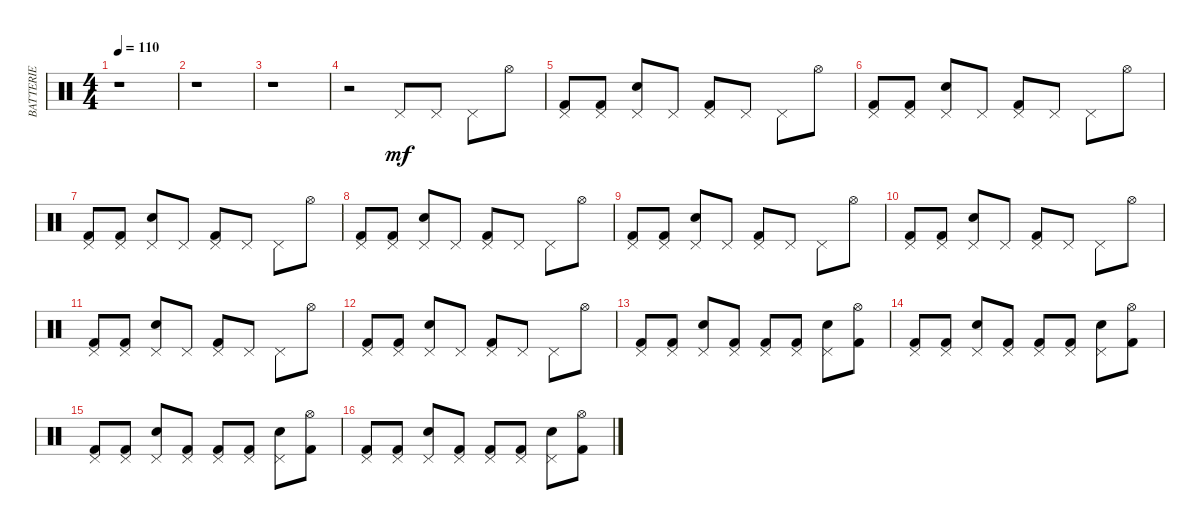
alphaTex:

\track ("BATTERIE" "BATTERIE") {instrument percussion}
\staff {score}
\articulation defaults
\ts (4 4)
\tempo 110
\clef neutral
\ks c
r.1{dy mf} |
r.1 |
r.1 |
r.2 "Pedal Hi-Hat (hit)".8 "Pedal Hi-Hat (hit)".8 "Pedal Hi-Hat (hit)".8 "Hi-Hat (open)".8 |
("Kick (hit) 2" "Pedal Hi-Hat (hit)").8 ("Kick (hit) 2" "Pedal Hi-Hat (hit)").8 ("Electric Snare (hit)" "Pedal Hi-Hat (hit)").8 "Pedal Hi-Hat (hit)".8 ("Kick (hit) 2" "Pedal Hi-Hat (hit)").8 "Pedal Hi-Hat (hit)".8 "Pedal Hi-Hat (hit)".8 "Hi-Hat (open)".8 |
("Kick (hit) 2" "Pedal Hi-Hat (hit)").8 ("Kick (hit) 2" "Pedal Hi-Hat (hit)").8 ("Electric Snare (hit)" "Pedal Hi-Hat (hit)").8 "Pedal Hi-Hat (hit)".8 ("Kick (hit) 2" "Pedal Hi-Hat (hit)").8 "Pedal Hi-Hat (hit)".8 "Pedal Hi-Hat (hit)".8 "Hi-Hat (open)".8 |
("Pedal Hi-Hat (hit)" "Kick (hit) 2").8 ("Pedal Hi-Hat (hit)" "Kick (hit) 2").8 ("Pedal Hi-Hat (hit)" "Electric Snare (hit)").8 "Pedal Hi-Hat (hit)".8 ("Pedal Hi-Hat (hit)" "Kick (hit) 2").8 "Pedal Hi-Hat (hit)".8 "Pedal Hi-Hat (hit)".8 "Hi-Hat (open)".8 |
("Kick (hit) 2" "Pedal Hi-Hat (hit)").8 ("Kick (hit) 2" "Pedal Hi-Hat (hit)").8 ("Electric Snare (hit)" "Pedal Hi-Hat (hit)").8 "Pedal Hi-Hat (hit)".8 ("Kick (hit) 2" "Pedal Hi-Hat (hit)").8 "Pedal Hi-Hat (hit)".8 "Pedal Hi-Hat (hit)".8 "Hi-Hat (open)".8 |
("Kick (hit) 2" "Pedal Hi-Hat (hit)").8 ("Kick (hit) 2" "Pedal Hi-Hat (hit)").8 ("Electric Snare (hit)" "Pedal Hi-Hat (hit)").8 "Pedal Hi-Hat (hit)".8 ("Kick (hit) 2" "Pedal Hi-Hat (hit)").8 "Pedal Hi-Hat (hit)".8 "Pedal Hi-Hat (hit)".8 "Hi-Hat (open)".8 |
("Pedal Hi-Hat (hit)" "Kick (hit) 2").8 ("Pedal Hi-Hat (hit)" "Kick (hit) 2").8 ("Pedal Hi-Hat (hit)" "Electric Snare (hit)").8 "Pedal Hi-Hat (hit)".8 ("Pedal Hi-Hat (hit)" "Kick (hit) 2").8 "Pedal Hi-Hat (hit)".8 "Pedal Hi-Hat (hit)".8 "Hi-Hat (open)".8 |
("Kick (hit) 2" "Pedal Hi-Hat (hit)").8 ("Kick (hit) 2" "Pedal Hi-Hat (hit)").8 ("Electric Snare (hit)" "Pedal Hi-Hat (hit)").8 "Pedal Hi-Hat (hit)".8 ("Kick (hit) 2" "Pedal Hi-Hat (hit)").8 "Pedal Hi-Hat (hit)".8 "Pedal Hi-Hat (hit)".8 "Hi-Hat (open)".8 |
("Kick (hit) 2" "Pedal Hi-Hat (hit)").8 ("Kick (hit) 2" "Pedal Hi-Hat (hit)").8 ("Electric Snare (hit)" "Pedal Hi-Hat (hit)").8 "Pedal Hi-Hat (hit)".8 ("Kick (hit) 2" "Pedal Hi-Hat (hit)").8 "Pedal Hi-Hat (hit)".8 "Pedal Hi-Hat (hit)".8 "Hi-Hat (open)".8 |
("Kick (hit) 2" "Pedal Hi-Hat (hit)").8 ("Kick (hit) 2" "Pedal Hi-Hat (hit)").8 ("Pedal Hi-Hat (hit)" "Electric Snare (hit)").8 ("Pedal Hi-Hat (hit)" "Kick (hit) 2").8 ("Kick (hit) 2" "Pedal Hi-Hat (hit)").8 ("Pedal Hi-Hat (hit)" "Kick (hit) 2").8 ("Pedal Hi-Hat (hit)" "Electric Snare (hit)").8 ("Hi-Hat (open)" "Kick (hit) 2").8 |
("Pedal Hi-Hat (hit)" "Kick (hit) 2").8 ("Pedal Hi-Hat (hit)" "Kick (hit) 2").8 ("Electric Snare (hit)" "Pedal Hi-Hat (hit)").8 ("Kick (hit) 2" "Pedal Hi-Hat (hit)").8 ("Pedal Hi-Hat (hit)" "Kick (hit) 2").8 ("Pedal Hi-Hat (hit)" "Kick (hit) 2").8 ("Electric Snare (hit)" "Pedal Hi-Hat (hit)").8 ("Hi-Hat (open)" "Kick (hit) 2").8 |
("Pedal Hi-Hat (hit)" "Kick (hit) 2").8 ("Pedal Hi-Hat (hit)" "Kick (hit) 2").8 ("Electric Snare (hit)" "Pedal Hi-Hat (hit)").8 ("Kick (hit) 2" "Pedal Hi-Hat (hit)").8 ("Pedal Hi-Hat (hit)" "Kick (hit) 2").8 ("Kick (hit) 2" "Pedal Hi-Hat (hit)").8 ("Electric Snare (hit)" "Pedal Hi-Hat (hit)").8 ("Kick (hit) 2" "Hi-Hat (open)").8 |
("Pedal Hi-Hat (hit)" "Kick (hit) 2").8 ("Pedal Hi-Hat (hit)" "Kick (hit) 2").8 ("Electric Snare (hit)" "Pedal Hi-Hat (hit)").8 ("Kick (hit) 2" "Pedal Hi-Hat (hit)").8 ("Pedal Hi-Hat (hit)" "Kick (hit) 2").8 ("Kick (hit) 2" "Pedal Hi-Hat (hit)").8 ("Electric Snare (hit)" "Pedal Hi-Hat (hit)").8 ("Kick (hit) 2" "Hi-Hat (open)").8
